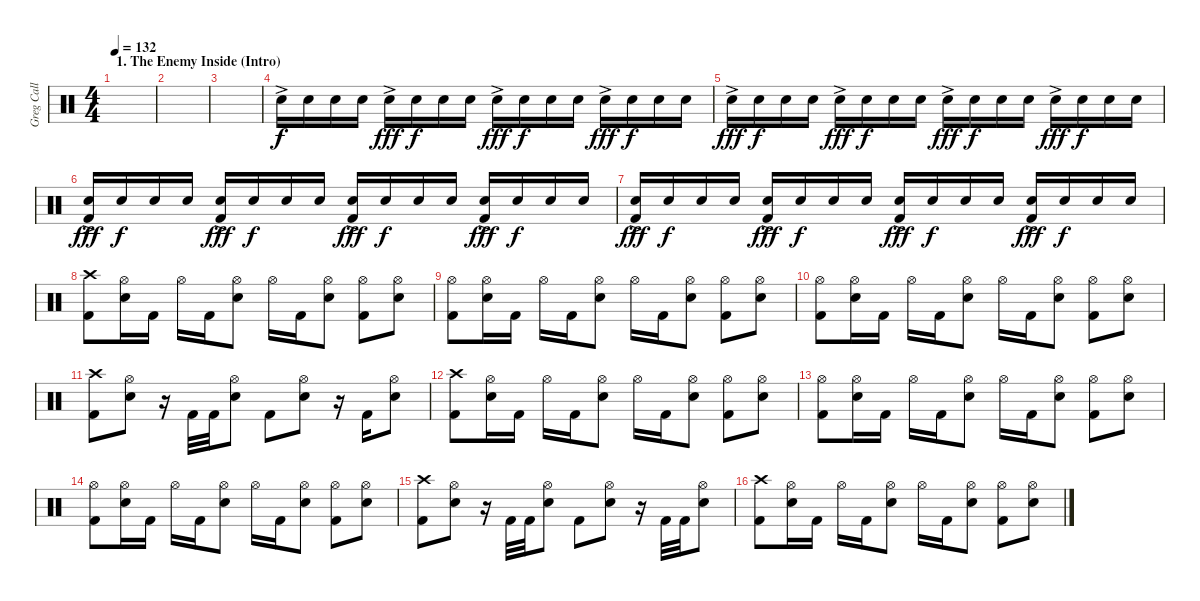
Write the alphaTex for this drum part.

\track ("Greg Call (Drums)" "Greg Call ") {instrument percussion}
\staff {score}
\articulation defaults
\ts (4 4)
\section ("" "1. The Enemy Inside (Intro)")
\tempo 132
\clef neutral
\ks c
|
|
|
"Snare (hit) 2"{ac}.16 "Snare (hit) 2".16{dy f} "Snare (hit) 2".16 "Snare (hit) 2".16 "Snare (hit) 2"{ac}.16{dy fff} "Snare (hit) 2".16{dy f} "Snare (hit) 2".16 "Snare (hit) 2".16 "Snare (hit) 2"{ac}.16{dy fff} "Snare (hit) 2".16{dy f} "Snare (hit) 2".16 "Snare (hit) 2".16 "Snare (hit) 2"{ac}.16{dy fff} "Snare (hit) 2".16{dy f} "Snare (hit) 2".16 "Snare (hit) 2".16 |
"Snare (hit) 2"{ac}.16{dy fff} "Snare (hit) 2".16{dy f} "Snare (hit) 2".16 "Snare (hit) 2".16 "Snare (hit) 2"{ac}.16{dy fff} "Snare (hit) 2".16{dy f} "Snare (hit) 2".16 "Snare (hit) 2".16 "Snare (hit) 2"{ac}.16{dy fff} "Snare (hit) 2".16{dy f} "Snare (hit) 2".16 "Snare (hit) 2".16 "Snare (hit) 2"{ac}.16{dy fff} "Snare (hit) 2".16{dy f} "Snare (hit) 2".16 "Snare (hit) 2".16 |
("Snare (hit) 2"{ac} "Kick (hit) 2").16{dy fff} "Snare (hit) 2".16{dy f} "Snare (hit) 2".16 "Snare (hit) 2".16 ("Snare (hit) 2"{ac} "Kick (hit) 2").16{dy fff} "Snare (hit) 2".16{dy f} "Snare (hit) 2".16 "Snare (hit) 2".16 ("Snare (hit) 2"{ac} "Kick (hit) 2").16{dy fff} "Snare (hit) 2".16{dy f} "Snare (hit) 2".16 "Snare (hit) 2".16 ("Snare (hit) 2"{ac} "Kick (hit) 2").16{dy fff} "Snare (hit) 2".16{dy f} "Snare (hit) 2".16 "Snare (hit) 2".16 |
("Snare (hit) 2"{ac} "Kick (hit) 2").16{dy fff} "Snare (hit) 2".16{dy f} "Snare (hit) 2".16 "Snare (hit) 2".16 ("Snare (hit) 2"{ac} "Kick (hit) 2").16{dy fff} "Snare (hit) 2".16{dy f} "Snare (hit) 2".16 "Snare (hit) 2".16 ("Snare (hit) 2"{ac} "Kick (hit) 2").16{dy fff} "Snare (hit) 2".16{dy f} "Snare (hit) 2".16 "Snare (hit) 2".16 ("Snare (hit) 2"{ac} "Kick (hit) 2").16{dy fff} "Snare (hit) 2".16{dy f} "Snare (hit) 2".16 "Snare (hit) 2".16 |
("Crash high (hit)" "Kick (hit) 2").8 ("Hi-Hat (open)" "Snare (hit) 2").16 "Kick (hit) 2".16 "Hi-Hat (open)".16 "Kick (hit) 2".16 ("Hi-Hat (open)" "Snare (hit) 2").8 "Hi-Hat (open)".16 "Kick (hit) 2".16 ("Hi-Hat (open)" "Snare (hit) 2").8 ("Hi-Hat (open)" "Kick (hit) 2").8 ("Hi-Hat (open)" "Snare (hit) 2").8 |
("Hi-Hat (open)" "Kick (hit) 2").8 ("Hi-Hat (open)" "Snare (hit) 2").16 "Kick (hit) 2".16 "Hi-Hat (open)".16 "Kick (hit) 2".16 ("Hi-Hat (open)" "Snare (hit) 2").8 "Hi-Hat (open)".16 "Kick (hit) 2".16 ("Hi-Hat (open)" "Snare (hit) 2").8 ("Hi-Hat (open)" "Kick (hit) 2").8 ("Hi-Hat (open)" "Snare (hit) 2").8 |
("Hi-Hat (open)" "Kick (hit) 2").8 ("Hi-Hat (open)" "Snare (hit) 2").16 "Kick (hit) 2".16 "Hi-Hat (open)".16 "Kick (hit) 2".16 ("Hi-Hat (open)" "Snare (hit) 2").8 "Hi-Hat (open)".16 "Kick (hit) 2".16 ("Hi-Hat (open)" "Snare (hit) 2").8 ("Hi-Hat (open)" "Kick (hit) 2").8 ("Hi-Hat (open)" "Snare (hit) 2").8 |
("Crash high (hit)" "Kick (hit) 2").8 ("Hi-Hat (open)" "Snare (hit) 2").8 r.16 "Kick (hit) 2".32 "Kick (hit) 2".32 ("Hi-Hat (open)" "Snare (hit) 2").8 "Kick (hit) 2".8 ("Hi-Hat (open)" "Snare (hit) 2").8 r.16 "Kick (hit) 2".16 ("Hi-Hat (open)" "Snare (hit) 2").8 |
("Crash high (hit)" "Kick (hit) 2").8 ("Hi-Hat (open)" "Snare (hit) 2").16 "Kick (hit) 2".16 "Hi-Hat (open)".16 "Kick (hit) 2".16 ("Hi-Hat (open)" "Snare (hit) 2").8 "Hi-Hat (open)".16 "Kick (hit) 2".16 ("Hi-Hat (open)" "Snare (hit) 2").8 ("Hi-Hat (open)" "Kick (hit) 2").8 ("Hi-Hat (open)" "Snare (hit) 2").8 |
("Hi-Hat (open)" "Kick (hit) 2").8 ("Hi-Hat (open)" "Snare (hit) 2").16 "Kick (hit) 2".16 "Hi-Hat (open)".16 "Kick (hit) 2".16 ("Hi-Hat (open)" "Snare (hit) 2").8 "Hi-Hat (open)".16 "Kick (hit) 2".16 ("Hi-Hat (open)" "Snare (hit) 2").8 ("Hi-Hat (open)" "Kick (hit) 2").8 ("Hi-Hat (open)" "Snare (hit) 2").8 |
("Hi-Hat (open)" "Kick (hit) 2").8 ("Hi-Hat (open)" "Snare (hit) 2").16 "Kick (hit) 2".16 "Hi-Hat (open)".16 "Kick (hit) 2".16 ("Hi-Hat (open)" "Snare (hit) 2").8 "Hi-Hat (open)".16 "Kick (hit) 2".16 ("Hi-Hat (open)" "Snare (hit) 2").8 ("Hi-Hat (open)" "Kick (hit) 2").8 ("Hi-Hat (open)" "Snare (hit) 2").8 |
("Crash high (hit)" "Kick (hit) 2").8 ("Hi-Hat (open)" "Snare (hit) 2").8 r.16 "Kick (hit) 2".32 "Kick (hit) 2".32 ("Hi-Hat (open)" "Snare (hit) 2").8 "Kick (hit) 2".8 ("Hi-Hat (open)" "Snare (hit) 2").8 r.16 "Kick (hit) 2".32 "Kick (hit) 2".32 ("Hi-Hat (open)" "Snare (hit) 2").8 |
("Crash high (hit)" "Kick (hit) 2").8 ("Hi-Hat (open)" "Snare (hit) 2").16 "Kick (hit) 2".16 "Hi-Hat (open)".16 "Kick (hit) 2".16 ("Hi-Hat (open)" "Snare (hit) 2").8 "Hi-Hat (open)".16 "Kick (hit) 2".16 ("Hi-Hat (open)" "Snare (hit) 2").8 ("Hi-Hat (open)" "Kick (hit) 2").8 ("Hi-Hat (open)" "Snare (hit) 2").8
